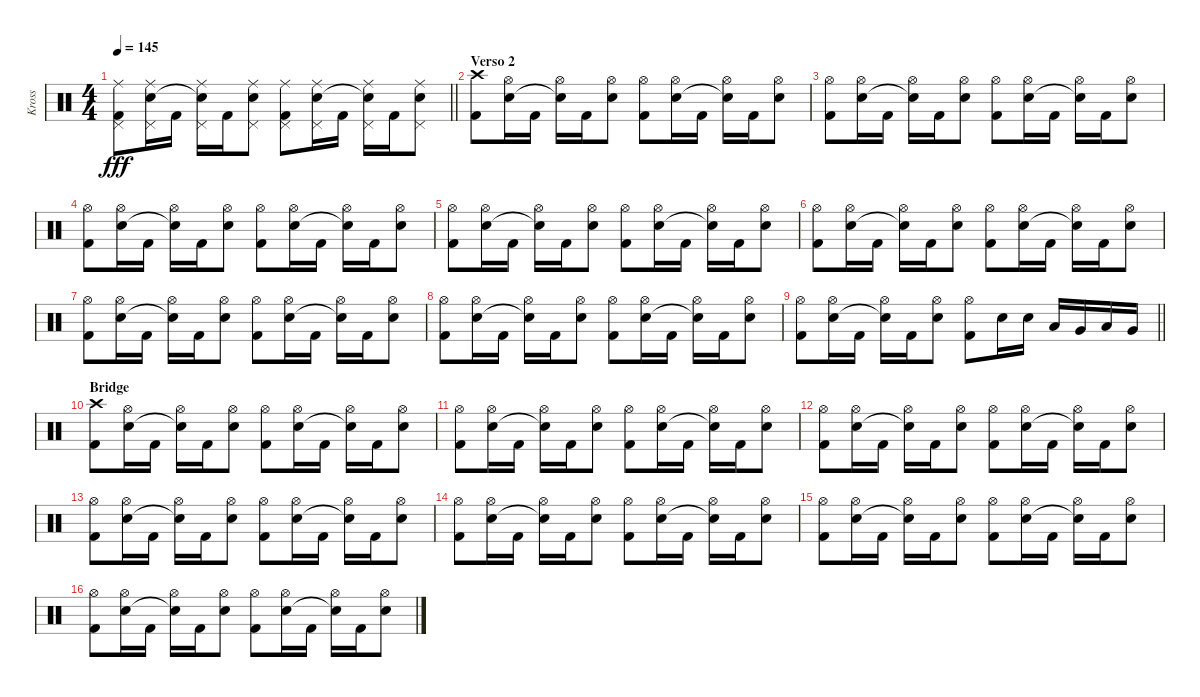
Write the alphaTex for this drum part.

\track ("Kross" "Kross") {instrument percussion}
\staff {score}
\articulation defaults
\ts (4 4)
\tempo 145
\clef neutral
\barLineRight lightlight
\ks c
("Ride (middle)" "Pedal Hi-Hat (hit)" "Kick (hit) 2").8{dy fff} ("Ride (middle)" "Pedal Hi-Hat (hit)" "Electric Snare (hit)").16 "Kick (hit) 2".16 ("Ride (middle)" "Pedal Hi-Hat (hit)" "Snare (hit)"{t}).16 "Kick (hit) 2".16 ("Ride (middle)" "Pedal Hi-Hat (hit)" "Electric Snare (hit)").8 ("Ride (middle)" "Pedal Hi-Hat (hit)" "Kick (hit) 2").8 ("Ride (middle)" "Pedal Hi-Hat (hit)" "Electric Snare (hit)").16 "Kick (hit) 2".16 ("Ride (middle)" "Pedal Hi-Hat (hit)" "Snare (hit)"{t}).16 "Kick (hit) 2".16 ("Ride (middle)" "Pedal Hi-Hat (hit)" "Electric Snare (hit)").8 |
\section ("" "Verso 2")
("Crash high (hit)" "Kick (hit) 2").8 ("Hi-Hat (open)" "Electric Snare (hit)").16 "Kick (hit) 2".16 ("Hi-Hat (open)" "Snare (hit)"{t}).16 "Kick (hit) 2".16 ("Hi-Hat (open)" "Electric Snare (hit)").8 ("Hi-Hat (open)" "Kick (hit) 2").8 ("Hi-Hat (open)" "Electric Snare (hit)").16 "Kick (hit) 2".16 ("Hi-Hat (open)" "Snare (hit)"{t}).16 "Kick (hit) 2".16 ("Hi-Hat (open)" "Electric Snare (hit)").8 |
("Hi-Hat (open)" "Kick (hit) 2").8 ("Hi-Hat (open)" "Electric Snare (hit)").16 "Kick (hit) 2".16 ("Hi-Hat (open)" "Snare (hit)"{t}).16 "Kick (hit) 2".16 ("Hi-Hat (open)" "Electric Snare (hit)").8 ("Hi-Hat (open)" "Kick (hit) 2").8 ("Hi-Hat (open)" "Electric Snare (hit)").16 "Kick (hit) 2".16 ("Hi-Hat (open)" "Snare (hit)"{t}).16 "Kick (hit) 2".16 ("Hi-Hat (open)" "Electric Snare (hit)").8 |
("Hi-Hat (open)" "Kick (hit) 2").8 ("Hi-Hat (open)" "Electric Snare (hit)").16 "Kick (hit) 2".16 ("Hi-Hat (open)" "Snare (hit)"{t}).16 "Kick (hit) 2".16 ("Hi-Hat (open)" "Electric Snare (hit)").8 ("Hi-Hat (open)" "Kick (hit) 2").8 ("Hi-Hat (open)" "Electric Snare (hit)").16 "Kick (hit) 2".16 ("Hi-Hat (open)" "Snare (hit)"{t}).16 "Kick (hit) 2".16 ("Hi-Hat (open)" "Electric Snare (hit)").8 |
("Hi-Hat (open)" "Kick (hit) 2").8 ("Hi-Hat (open)" "Electric Snare (hit)").16 "Kick (hit) 2".16 ("Hi-Hat (open)" "Snare (hit)"{t}).16 "Kick (hit) 2".16 ("Hi-Hat (open)" "Electric Snare (hit)").8 ("Hi-Hat (open)" "Kick (hit) 2").8 ("Hi-Hat (open)" "Electric Snare (hit)").16 "Kick (hit) 2".16 ("Hi-Hat (open)" "Snare (hit)"{t}).16 "Kick (hit) 2".16 ("Hi-Hat (open)" "Electric Snare (hit)").8 |
("Hi-Hat (open)" "Kick (hit) 2").8 ("Hi-Hat (open)" "Electric Snare (hit)").16 "Kick (hit) 2".16 ("Hi-Hat (open)" "Snare (hit)"{t}).16 "Kick (hit) 2".16 ("Hi-Hat (open)" "Electric Snare (hit)").8 ("Hi-Hat (open)" "Kick (hit) 2").8 ("Hi-Hat (open)" "Electric Snare (hit)").16 "Kick (hit) 2".16 ("Hi-Hat (open)" "Snare (hit)"{t}).16 "Kick (hit) 2".16 ("Hi-Hat (open)" "Electric Snare (hit)").8 |
("Hi-Hat (open)" "Kick (hit) 2").8 ("Hi-Hat (open)" "Electric Snare (hit)").16 "Kick (hit) 2".16 ("Hi-Hat (open)" "Snare (hit)"{t}).16 "Kick (hit) 2".16 ("Hi-Hat (open)" "Electric Snare (hit)").8 ("Hi-Hat (open)" "Kick (hit) 2").8 ("Hi-Hat (open)" "Electric Snare (hit)").16 "Kick (hit) 2".16 ("Hi-Hat (open)" "Snare (hit)"{t}).16 "Kick (hit) 2".16 ("Hi-Hat (open)" "Electric Snare (hit)").8 |
("Hi-Hat (open)" "Kick (hit) 2").8 ("Hi-Hat (open)" "Electric Snare (hit)").16 "Kick (hit) 2".16 ("Hi-Hat (open)" "Snare (hit)"{t}).16 "Kick (hit) 2".16 ("Hi-Hat (open)" "Electric Snare (hit)").8 ("Hi-Hat (open)" "Kick (hit) 2").8 ("Hi-Hat (open)" "Electric Snare (hit)").16 "Kick (hit) 2".16 ("Hi-Hat (open)" "Snare (hit)"{t}).16 "Kick (hit) 2".16 ("Hi-Hat (open)" "Electric Snare (hit)").8 |
\barLineRight lightlight
("Hi-Hat (open)" "Kick (hit) 2").8 ("Hi-Hat (open)" "Electric Snare (hit)").16 "Kick (hit) 2".16 ("Hi-Hat (open)" "Snare (hit)"{t}).16 "Kick (hit) 2".16 ("Hi-Hat (open)" "Electric Snare (hit)").8 ("Hi-Hat (open)" "Kick (hit) 2").8 "Electric Snare (hit)".16 "Electric Snare (hit)".16 "Low Tom (hit)".16 "Very Low Tom (hit)".16 "Low Floor Tom (hit)".16 "Very Low Tom (hit)".16 |
\section ("" "Bridge")
("Crash high (hit)" "Kick (hit) 2").8 ("Hi-Hat (open)" "Electric Snare (hit)").16 "Kick (hit) 2".16 ("Hi-Hat (open)" "Snare (hit)"{t}).16 "Kick (hit) 2".16 ("Hi-Hat (open)" "Electric Snare (hit)").8 ("Hi-Hat (open)" "Kick (hit) 2").8 ("Hi-Hat (open)" "Electric Snare (hit)").16 "Kick (hit) 2".16 ("Hi-Hat (open)" "Snare (hit)"{t}).16 "Kick (hit) 2".16 ("Hi-Hat (open)" "Electric Snare (hit)").8 |
("Hi-Hat (open)" "Kick (hit) 2").8 ("Hi-Hat (open)" "Electric Snare (hit)").16 "Kick (hit) 2".16 ("Hi-Hat (open)" "Snare (hit)"{t}).16 "Kick (hit) 2".16 ("Hi-Hat (open)" "Electric Snare (hit)").8 ("Hi-Hat (open)" "Kick (hit) 2").8 ("Hi-Hat (open)" "Electric Snare (hit)").16 "Kick (hit) 2".16 ("Hi-Hat (open)" "Snare (hit)"{t}).16 "Kick (hit) 2".16 ("Hi-Hat (open)" "Electric Snare (hit)").8 |
("Hi-Hat (open)" "Kick (hit) 2").8 ("Hi-Hat (open)" "Electric Snare (hit)").16 "Kick (hit) 2".16 ("Hi-Hat (open)" "Snare (hit)"{t}).16 "Kick (hit) 2".16 ("Hi-Hat (open)" "Electric Snare (hit)").8 ("Hi-Hat (open)" "Kick (hit) 2").8 ("Hi-Hat (open)" "Electric Snare (hit)").16 "Kick (hit) 2".16 ("Hi-Hat (open)" "Snare (hit)"{t}).16 "Kick (hit) 2".16 ("Hi-Hat (open)" "Electric Snare (hit)").8 |
("Hi-Hat (open)" "Kick (hit) 2").8 ("Hi-Hat (open)" "Electric Snare (hit)").16 "Kick (hit) 2".16 ("Hi-Hat (open)" "Snare (hit)"{t}).16 "Kick (hit) 2".16 ("Hi-Hat (open)" "Electric Snare (hit)").8 ("Hi-Hat (open)" "Kick (hit) 2").8 ("Hi-Hat (open)" "Electric Snare (hit)").16 "Kick (hit) 2".16 ("Hi-Hat (open)" "Snare (hit)"{t}).16 "Kick (hit) 2".16 ("Hi-Hat (open)" "Electric Snare (hit)").8 |
("Hi-Hat (open)" "Kick (hit) 2").8 ("Hi-Hat (open)" "Electric Snare (hit)").16 "Kick (hit) 2".16 ("Hi-Hat (open)" "Snare (hit)"{t}).16 "Kick (hit) 2".16 ("Hi-Hat (open)" "Electric Snare (hit)").8 ("Hi-Hat (open)" "Kick (hit) 2").8 ("Hi-Hat (open)" "Electric Snare (hit)").16 "Kick (hit) 2".16 ("Hi-Hat (open)" "Snare (hit)"{t}).16 "Kick (hit) 2".16 ("Hi-Hat (open)" "Electric Snare (hit)").8 |
("Hi-Hat (open)" "Kick (hit) 2").8 ("Hi-Hat (open)" "Electric Snare (hit)").16 "Kick (hit) 2".16 ("Hi-Hat (open)" "Snare (hit)"{t}).16 "Kick (hit) 2".16 ("Hi-Hat (open)" "Electric Snare (hit)").8 ("Hi-Hat (open)" "Kick (hit) 2").8 ("Hi-Hat (open)" "Electric Snare (hit)").16 "Kick (hit) 2".16 ("Hi-Hat (open)" "Snare (hit)"{t}).16 "Kick (hit) 2".16 ("Hi-Hat (open)" "Electric Snare (hit)").8 |
("Hi-Hat (open)" "Kick (hit) 2").8 ("Hi-Hat (open)" "Electric Snare (hit)").16 "Kick (hit) 2".16 ("Hi-Hat (open)" "Snare (hit)"{t}).16 "Kick (hit) 2".16 ("Hi-Hat (open)" "Electric Snare (hit)").8 ("Hi-Hat (open)" "Kick (hit) 2").8 ("Hi-Hat (open)" "Electric Snare (hit)").16 "Kick (hit) 2".16 ("Hi-Hat (open)" "Snare (hit)"{t}).16 "Kick (hit) 2".16 ("Hi-Hat (open)" "Electric Snare (hit)").8
